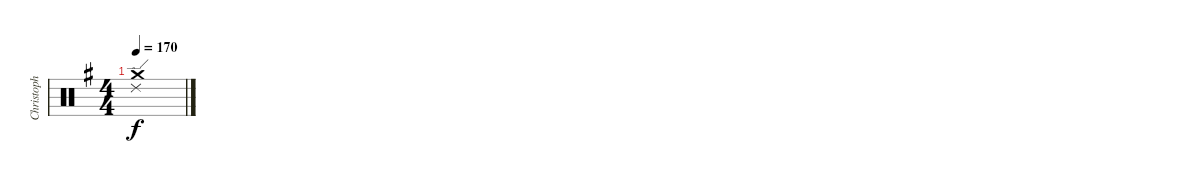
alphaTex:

\track ("Christoph Doom Schneider - Drums" "Christoph ") {instrument percussion}
\staff {score}
\articulation defaults
\ts (4 4)
\tempo 170
\clef neutral
\ks g
("Crash medium (hit)" "Ride (edge) 2").1{dy f}
